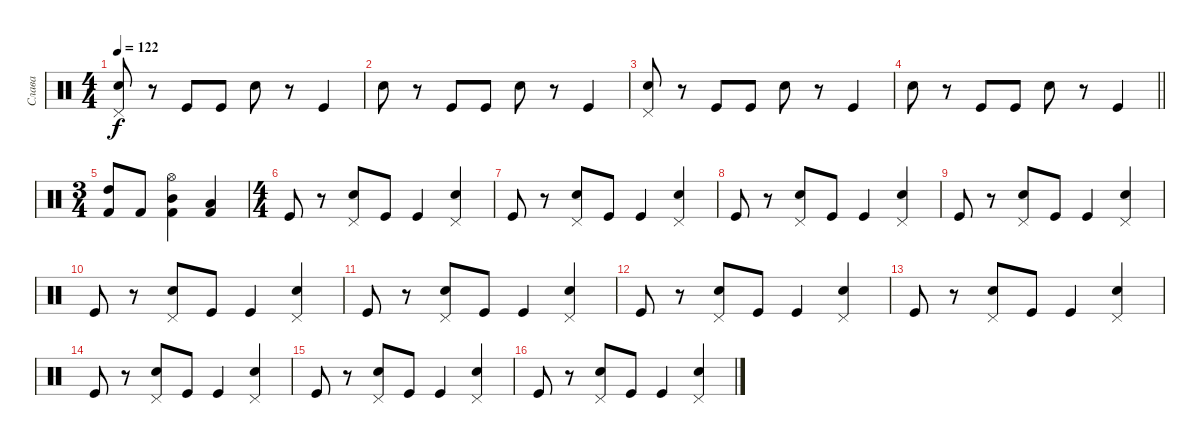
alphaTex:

\track ("Слава" "Слава") {instrument percussion}
\staff {score}
\articulation defaults
\ts (4 4)
\tempo 122
\clef neutral
\ks c
("Electric Snare (hit)" "Pedal Hi-Hat (hit)").8{dy f} r.8 "Kick (hit)".8 "Kick (hit)".8 "Electric Snare (hit)".8 r.8 "Kick (hit)".4 |
"Electric Snare (hit)".8 r.8 "Kick (hit)".8 "Kick (hit)".8 "Electric Snare (hit)".8 r.8 "Kick (hit)".4 |
("Electric Snare (hit)" "Pedal Hi-Hat (hit)").8 r.8 "Kick (hit)".8 "Kick (hit)".8 "Electric Snare (hit)".8 r.8 "Kick (hit)".4 |
\barLineRight lightlight "Electric Snare (hit)".8
r.8 "Kick (hit)".8 "Kick (hit)".8 "Electric Snare (hit)".8 r.8 "Kick (hit)".4 |
\ts (3 4)
("Kick (hit) 2" "High Tom (hit)").8{volume 16} "Kick (hit) 2".8 ("Kick (hit) 2" "Mid Tom (hit)" "Hi-Hat (open)").4 ("Kick (hit) 2" "Low Tom (hit)").4 |
\ts (4 4)
"Kick (hit)".8 r.8 ("Pedal Hi-Hat (hit)" "Snare (hit) 2").8 "Kick (hit)".8 "Kick (hit)".4 ("Pedal Hi-Hat (hit)" "Snare (hit) 2").4 |
"Kick (hit)".8 r.8 ("Pedal Hi-Hat (hit)" "Snare (hit) 2").8 "Kick (hit)".8 "Kick (hit)".4 ("Pedal Hi-Hat (hit)" "Snare (hit) 2").4 |
"Kick (hit)".8 r.8 ("Pedal Hi-Hat (hit)" "Snare (hit) 2").8 "Kick (hit)".8 "Kick (hit)".4 ("Pedal Hi-Hat (hit)" "Snare (hit) 2").4 |
"Kick (hit)".8 r.8 ("Pedal Hi-Hat (hit)" "Snare (hit) 2").8 "Kick (hit)".8 "Kick (hit)".4 ("Pedal Hi-Hat (hit)" "Snare (hit) 2").4 |
"Kick (hit)".8 r.8 ("Pedal Hi-Hat (hit)" "Snare (hit) 2").8 "Kick (hit)".8 "Kick (hit)".4 ("Pedal Hi-Hat (hit)" "Snare (hit) 2").4 |
"Kick (hit)".8 r.8 ("Pedal Hi-Hat (hit)" "Snare (hit) 2").8 "Kick (hit)".8 "Kick (hit)".4 ("Pedal Hi-Hat (hit)" "Snare (hit) 2").4 |
"Kick (hit)".8 r.8 ("Pedal Hi-Hat (hit)" "Snare (hit) 2").8 "Kick (hit)".8 "Kick (hit)".4 ("Pedal Hi-Hat (hit)" "Snare (hit) 2").4 |
"Kick (hit)".8 r.8 ("Pedal Hi-Hat (hit)" "Snare (hit) 2").8 "Kick (hit)".8 "Kick (hit)".4 ("Pedal Hi-Hat (hit)" "Snare (hit) 2").4 |
"Kick (hit)".8 r.8 ("Pedal Hi-Hat (hit)" "Snare (hit) 2").8 "Kick (hit)".8 "Kick (hit)".4 ("Pedal Hi-Hat (hit)" "Snare (hit) 2").4 |
"Kick (hit)".8 r.8 ("Pedal Hi-Hat (hit)" "Snare (hit) 2").8 "Kick (hit)".8 "Kick (hit)".4 ("Pedal Hi-Hat (hit)" "Snare (hit) 2").4 |
"Kick (hit)".8 r.8 ("Pedal Hi-Hat (hit)" "Snare (hit) 2").8 "Kick (hit)".8 "Kick (hit)".4 ("Pedal Hi-Hat (hit)" "Snare (hit) 2").4
